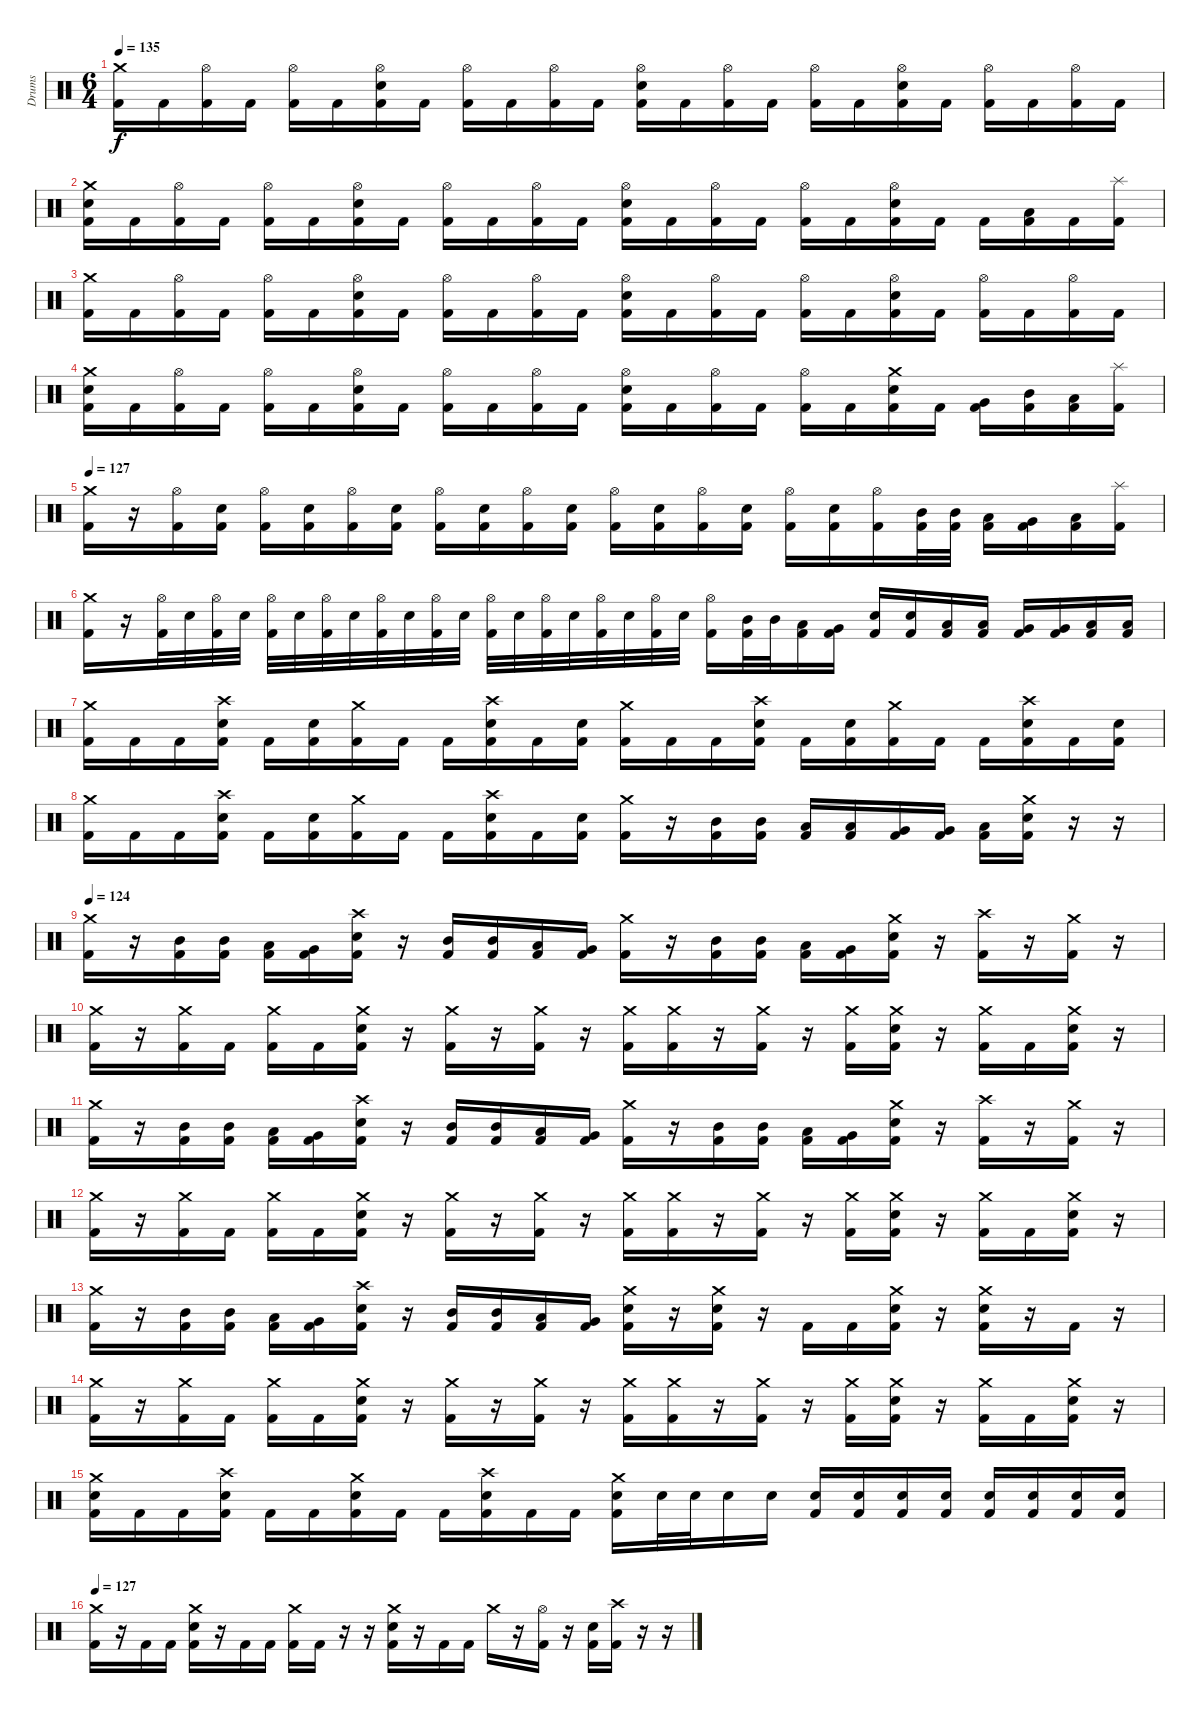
\track ("Drums" "Drums") {instrument percussion}
\staff {score}
\articulation defaults
\ts (6 4)
\section ("" "")
\tempo 135
\clef neutral
\ks c
("Crash medium (hit)" "Kick (hit) 2").16{dy f} "Kick (hit) 2".16 ("Hi-Hat (open)" "Kick (hit) 2").16 "Kick (hit) 2".16 ("Hi-Hat (open)" "Kick (hit) 2").16 "Kick (hit) 2".16 ("Hi-Hat (open)" "Electric Snare (hit)" "Kick (hit) 2").16 "Kick (hit) 2".16 ("Hi-Hat (open)" "Kick (hit) 2").16 "Kick (hit) 2".16 ("Hi-Hat (open)" "Kick (hit) 2").16 "Kick (hit) 2".16 ("Hi-Hat (open)" "Electric Snare (hit)" "Kick (hit) 2").16 "Kick (hit) 2".16 ("Hi-Hat (open)" "Kick (hit) 2").16 "Kick (hit) 2".16 ("Hi-Hat (open)" "Kick (hit) 2").16 "Kick (hit) 2".16 ("Hi-Hat (open)" "Electric Snare (hit)" "Kick (hit) 2").16 "Kick (hit) 2".16 ("Hi-Hat (open)" "Kick (hit) 2").16 "Kick (hit) 2".16 ("Hi-Hat (open)" "Kick (hit) 2").16 "Kick (hit) 2".16 |
("Crash medium (hit)" "Electric Snare (hit)" "Kick (hit) 2").16 "Kick (hit) 2".16 ("Hi-Hat (open)" "Kick (hit) 2").16 "Kick (hit) 2".16 ("Hi-Hat (open)" "Kick (hit) 2").16 "Kick (hit) 2".16 ("Hi-Hat (open)" "Electric Snare (hit)" "Kick (hit) 2").16 "Kick (hit) 2".16 ("Hi-Hat (open)" "Kick (hit) 2").16 "Kick (hit) 2".16 ("Hi-Hat (open)" "Kick (hit) 2").16 "Kick (hit) 2".16 ("Hi-Hat (open)" "Electric Snare (hit)" "Kick (hit) 2").16 "Kick (hit) 2".16 ("Hi-Hat (open)" "Kick (hit) 2").16 "Kick (hit) 2".16 ("Hi-Hat (open)" "Kick (hit) 2").16 "Kick (hit) 2".16 ("Hi-Hat (open)" "Electric Snare (hit)" "Kick (hit) 2").16 "Kick (hit) 2".16 "Kick (hit) 2".16 ("Low Tom (hit)" "Kick (hit) 2").16 "Kick (hit) 2".16 ("Splash (hit)" "Kick (hit) 2").16 |
("Crash medium (hit)" "Kick (hit) 2").16 "Kick (hit) 2".16 ("Hi-Hat (open)" "Kick (hit) 2").16 "Kick (hit) 2".16 ("Hi-Hat (open)" "Kick (hit) 2").16 "Kick (hit) 2".16 ("Hi-Hat (open)" "Electric Snare (hit)" "Kick (hit) 2").16 "Kick (hit) 2".16 ("Hi-Hat (open)" "Kick (hit) 2").16 "Kick (hit) 2".16 ("Hi-Hat (open)" "Kick (hit) 2").16 "Kick (hit) 2".16 ("Hi-Hat (open)" "Electric Snare (hit)" "Kick (hit) 2").16 "Kick (hit) 2".16 ("Hi-Hat (open)" "Kick (hit) 2").16 "Kick (hit) 2".16 ("Hi-Hat (open)" "Kick (hit) 2").16 "Kick (hit) 2".16 ("Hi-Hat (open)" "Electric Snare (hit)" "Kick (hit) 2").16 "Kick (hit) 2".16 ("Hi-Hat (open)" "Kick (hit) 2").16 "Kick (hit) 2".16 ("Hi-Hat (open)" "Kick (hit) 2").16 "Kick (hit) 2".16 |
("Crash medium (hit)" "Electric Snare (hit)" "Kick (hit) 2").16 "Kick (hit) 2".16 ("Hi-Hat (open)" "Kick (hit) 2").16 "Kick (hit) 2".16 ("Hi-Hat (open)" "Kick (hit) 2").16 "Kick (hit) 2".16 ("Hi-Hat (open)" "Electric Snare (hit)" "Kick (hit) 2").16 "Kick (hit) 2".16 ("Hi-Hat (open)" "Kick (hit) 2").16 "Kick (hit) 2".16 ("Hi-Hat (open)" "Kick (hit) 2").16 "Kick (hit) 2".16 ("Hi-Hat (open)" "Electric Snare (hit)" "Kick (hit) 2").16 "Kick (hit) 2".16 ("Hi-Hat (open)" "Kick (hit) 2").16 "Kick (hit) 2".16 ("Hi-Hat (open)" "Kick (hit) 2").16 "Kick (hit) 2".16 ("Crash medium (hit)" "Electric Snare (hit)" "Kick (hit) 2").16 "Kick (hit) 2".16 ("Very Low Tom (hit)" "Kick (hit) 2").16 ("Mid Tom (hit)" "Kick (hit) 2").16 ("Low Tom (hit)" "Kick (hit) 2").16 ("Splash (hit)" "Kick (hit) 2").16 |
\section ("" "")
\tempo 127
("Crash medium (hit)" "Kick (hit) 2").16 r.16 ("Hi-Hat (open)" "Kick (hit) 2").16 ("Electric Snare (hit)" "Kick (hit) 2").16 ("Hi-Hat (open)" "Kick (hit) 2").16 ("Electric Snare (hit)" "Kick (hit) 2").16 ("Hi-Hat (open)" "Kick (hit) 2").16 ("Electric Snare (hit)" "Kick (hit) 2").16 ("Hi-Hat (open)" "Kick (hit) 2").16 ("Electric Snare (hit)" "Kick (hit) 2").16 ("Hi-Hat (open)" "Kick (hit) 2").16 ("Electric Snare (hit)" "Kick (hit) 2").16 ("Hi-Hat (open)" "Kick (hit) 2").16 ("Electric Snare (hit)" "Kick (hit) 2").16 ("Hi-Hat (open)" "Kick (hit) 2").16 ("Electric Snare (hit)" "Kick (hit) 2").16 ("Hi-Hat (open)" "Kick (hit) 2").16 ("Electric Snare (hit)" "Kick (hit) 2").16 ("Hi-Hat (open)" "Kick (hit) 2").16 ("Mid Tom (hit)" "Kick (hit) 2").32 ("Mid Tom (hit)" "Kick (hit) 2").32 ("Low Tom (hit)" "Kick (hit) 2").16 ("Very Low Tom (hit)" "Kick (hit) 2").16 ("Low Floor Tom (hit)" "Kick (hit) 2").16 ("Splash (hit)" "Kick (hit) 2").16 |
("Crash medium (hit)" "Kick (hit) 2").16 r.16 ("Hi-Hat (open)" "Kick (hit) 2").32 "Electric Snare (hit)".32 ("Hi-Hat (open)" "Kick (hit) 2").32 "Electric Snare (hit)".32 ("Hi-Hat (open)" "Kick (hit) 2").32 "Electric Snare (hit)".32 ("Hi-Hat (open)" "Kick (hit) 2").32 "Electric Snare (hit)".32 ("Hi-Hat (open)" "Kick (hit) 2").32 "Electric Snare (hit)".32 ("Hi-Hat (open)" "Kick (hit) 2").32 "Electric Snare (hit)".32 ("Hi-Hat (open)" "Kick (hit) 2").32 "Electric Snare (hit)".32 ("Hi-Hat (open)" "Kick (hit) 2").32 "Electric Snare (hit)".32 ("Hi-Hat (open)" "Kick (hit) 2").32 "Electric Snare (hit)".32 ("Hi-Hat (open)" "Kick (hit) 2").32 "Electric Snare (hit)".32 ("Hi-Hat (open)" "Kick (hit) 2").16 ("Mid Tom (hit)" "Kick (hit) 2").32 "Mid Tom (hit)".32 ("Low Tom (hit)" "Kick (hit) 2").16 ("Very Low Tom (hit)" "Kick (hit) 2").16 ("Electric Snare (hit)" "Kick (hit) 2").16 ("Electric Snare (hit)" "Kick (hit) 2").16 ("Low Tom (hit)" "Kick (hit) 2").16 ("Low Tom (hit)" "Kick (hit) 2").16 ("Very Low Tom (hit)" "Kick (hit) 2").16 ("Very Low Tom (hit)" "Kick (hit) 2").16 ("Low Floor Tom (hit)" "Kick (hit) 2").16 ("Low Floor Tom (hit)" "Kick (hit) 2").16 |
\section ("" "")
("Crash medium (hit)" "Kick (hit) 2").16 "Kick (hit) 2".16 "Kick (hit) 2".16 ("Crash high (hit)" "Electric Snare (hit)" "Kick (hit) 2").16 "Kick (hit) 2".16 ("Electric Snare (hit)" "Kick (hit) 2").16 ("Crash medium (hit)" "Kick (hit) 2").16 "Kick (hit) 2".16 "Kick (hit) 2".16 ("Crash high (hit)" "Electric Snare (hit)" "Kick (hit) 2").16 "Kick (hit) 2".16 ("Electric Snare (hit)" "Kick (hit) 2").16 ("Crash medium (hit)" "Kick (hit) 2").16 "Kick (hit) 2".16 "Kick (hit) 2".16 ("Crash high (hit)" "Electric Snare (hit)" "Kick (hit) 2").16 "Kick (hit) 2".16 ("Electric Snare (hit)" "Kick (hit) 2").16 ("Crash medium (hit)" "Kick (hit) 2").16 "Kick (hit) 2".16 "Kick (hit) 2".16 ("Crash high (hit)" "Electric Snare (hit)" "Kick (hit) 2").16 "Kick (hit) 2".16 ("Electric Snare (hit)" "Kick (hit) 2").16 |
("Crash medium (hit)" "Kick (hit) 2").16 "Kick (hit) 2".16 "Kick (hit) 2".16 ("Crash high (hit)" "Electric Snare (hit)" "Kick (hit) 2").16 "Kick (hit) 2".16 ("Electric Snare (hit)" "Kick (hit) 2").16 ("Crash medium (hit)" "Kick (hit) 2").16 "Kick (hit) 2".16 "Kick (hit) 2".16 ("Crash high (hit)" "Electric Snare (hit)" "Kick (hit) 2").16 "Kick (hit) 2".16 ("Electric Snare (hit)" "Kick (hit) 2").16 ("Crash medium (hit)" "Kick (hit) 2").16 r.16 ("Mid Tom (hit)" "Kick (hit) 2").16 ("Mid Tom (hit)" "Kick (hit) 2").16 ("Low Tom (hit)" "Kick (hit) 2").16 ("Low Tom (hit)" "Kick (hit) 2").16 ("Very Low Tom (hit)" "Kick (hit) 2").16 ("Very Low Tom (hit)" "Kick (hit) 2").16 ("Low Floor Tom (hit)" "Kick (hit) 2").16 ("Crash medium (hit)" "Electric Snare (hit)" "Kick (hit) 2").16 r.16{volume 0} r.16 |
\section ("" "")
\tempo 124
("Crash medium (hit)" "Kick (hit) 2").16{volume 16} r.16 ("Mid Tom (hit)" "Kick (hit) 2").16 ("Mid Tom (hit)" "Kick (hit) 2").16 ("Low Tom (hit)" "Kick (hit) 2").16 ("Very Low Tom (hit)" "Kick (hit) 2").16 ("Crash high (hit)" "Electric Snare (hit)" "Kick (hit) 2").16 r.16 ("Mid Tom (hit)" "Kick (hit) 2").16 ("Mid Tom (hit)" "Kick (hit) 2").16 ("Low Tom (hit)" "Kick (hit) 2").16 ("Very Low Tom (hit)" "Kick (hit) 2").16 ("Crash medium (hit)" "Kick (hit) 2").16 r.16 ("Mid Tom (hit)" "Kick (hit) 2").16 ("Mid Tom (hit)" "Kick (hit) 2").16 ("Low Tom (hit)" "Kick (hit) 2").16 ("Very Low Tom (hit)" "Kick (hit) 2").16 ("Crash medium (hit)" "Electric Snare (hit)" "Kick (hit) 2").16 r.16 ("Crash high (hit)" "Kick (hit) 2").16 r.16 ("Crash medium (hit)" "Kick (hit) 2").16 r.16 |
("Crash medium (hit)" "Kick (hit) 2").16 r.16 ("Crash medium (hit)" "Kick (hit) 2").16 "Kick (hit) 2".16 ("Crash medium (hit)" "Kick (hit) 2").16 "Kick (hit) 2".16 ("Crash medium (hit)" "Electric Snare (hit)" "Kick (hit) 2").16 r.16 ("Crash medium (hit)" "Kick (hit) 2").16 r.16 ("Crash medium (hit)" "Kick (hit) 2").16 r.16 ("Crash medium (hit)" "Kick (hit) 2").16 ("Crash medium (hit)" "Kick (hit) 2").16 r.16 ("Crash medium (hit)" "Kick (hit) 2").16 r.16 ("Crash medium (hit)" "Kick (hit) 2").16 ("Crash medium (hit)" "Electric Snare (hit)" "Kick (hit) 2").16 r.16 ("Crash medium (hit)" "Kick (hit) 2").16 "Kick (hit) 2".16 ("Crash medium (hit)" "Electric Snare (hit)" "Kick (hit) 2").16 r.16 |
("Crash medium (hit)" "Kick (hit) 2").16 r.16 ("Mid Tom (hit)" "Kick (hit) 2").16 ("Mid Tom (hit)" "Kick (hit) 2").16 ("Low Tom (hit)" "Kick (hit) 2").16 ("Very Low Tom (hit)" "Kick (hit) 2").16 ("Crash high (hit)" "Electric Snare (hit)" "Kick (hit) 2").16 r.16 ("Mid Tom (hit)" "Kick (hit) 2").16 ("Mid Tom (hit)" "Kick (hit) 2").16 ("Low Tom (hit)" "Kick (hit) 2").16 ("Very Low Tom (hit)" "Kick (hit) 2").16 ("Crash medium (hit)" "Kick (hit) 2").16 r.16 ("Mid Tom (hit)" "Kick (hit) 2").16 ("Mid Tom (hit)" "Kick (hit) 2").16 ("Low Tom (hit)" "Kick (hit) 2").16 ("Very Low Tom (hit)" "Kick (hit) 2").16 ("Crash medium (hit)" "Electric Snare (hit)" "Kick (hit) 2").16 r.16 ("Crash high (hit)" "Kick (hit) 2").16 r.16 ("Crash medium (hit)" "Kick (hit) 2").16 r.16 |
("Crash medium (hit)" "Kick (hit) 2").16 r.16 ("Crash medium (hit)" "Kick (hit) 2").16 "Kick (hit) 2".16 ("Crash medium (hit)" "Kick (hit) 2").16 "Kick (hit) 2".16 ("Crash medium (hit)" "Electric Snare (hit)" "Kick (hit) 2").16 r.16 ("Crash medium (hit)" "Kick (hit) 2").16 r.16 ("Crash medium (hit)" "Kick (hit) 2").16 r.16 ("Crash medium (hit)" "Kick (hit) 2").16 ("Crash medium (hit)" "Kick (hit) 2").16 r.16 ("Crash medium (hit)" "Kick (hit) 2").16 r.16 ("Crash medium (hit)" "Kick (hit) 2").16 ("Crash medium (hit)" "Electric Snare (hit)" "Kick (hit) 2").16 r.16 ("Crash medium (hit)" "Kick (hit) 2").16 "Kick (hit) 2".16 ("Crash medium (hit)" "Electric Snare (hit)" "Kick (hit) 2").16 r.16 |
("Crash medium (hit)" "Kick (hit) 2").16 r.16 ("Mid Tom (hit)" "Kick (hit) 2").16 ("Mid Tom (hit)" "Kick (hit) 2").16 ("Low Tom (hit)" "Kick (hit) 2").16 ("Very Low Tom (hit)" "Kick (hit) 2").16 ("Crash high (hit)" "Electric Snare (hit)" "Kick (hit) 2").16 r.16 ("Mid Tom (hit)" "Kick (hit) 2").16 ("Mid Tom (hit)" "Kick (hit) 2").16 ("Low Tom (hit)" "Kick (hit) 2").16 ("Very Low Tom (hit)" "Kick (hit) 2").16 ("Crash medium (hit)" "Electric Snare (hit)" "Kick (hit) 2").16 r.16 ("Crash medium (hit)" "Electric Snare (hit)" "Kick (hit) 2").16 r.16 "Kick (hit) 2".16 "Kick (hit) 2".16 ("Crash medium (hit)" "Electric Snare (hit)" "Kick (hit) 2").16 r.16 ("Crash medium (hit)" "Electric Snare (hit)" "Kick (hit) 2").16 r.16 "Kick (hit) 2".16 r.16 |
("Crash medium (hit)" "Kick (hit) 2").16 r.16 ("Crash medium (hit)" "Kick (hit) 2").16 "Kick (hit) 2".16 ("Crash medium (hit)" "Kick (hit) 2").16 "Kick (hit) 2".16 ("Crash medium (hit)" "Electric Snare (hit)" "Kick (hit) 2").16 r.16 ("Crash medium (hit)" "Kick (hit) 2").16 r.16 ("Crash medium (hit)" "Kick (hit) 2").16 r.16 ("Crash medium (hit)" "Kick (hit) 2").16 ("Crash medium (hit)" "Kick (hit) 2").16 r.16 ("Crash medium (hit)" "Kick (hit) 2").16 r.16 ("Crash medium (hit)" "Kick (hit) 2").16 ("Crash medium (hit)" "Electric Snare (hit)" "Kick (hit) 2").16 r.16 ("Crash medium (hit)" "Kick (hit) 2").16 "Kick (hit) 2".16 ("Crash medium (hit)" "Electric Snare (hit)" "Kick (hit) 2").16 r.16 |
("Crash medium (hit)" "Electric Snare (hit)" "Kick (hit) 2").16 "Kick (hit) 2".16 "Kick (hit) 2".16 ("Crash high (hit)" "Electric Snare (hit)" "Kick (hit) 2").16 "Kick (hit) 2".16 "Kick (hit) 2".16 ("Crash medium (hit)" "Electric Snare (hit)" "Kick (hit) 2").16 "Kick (hit) 2".16 "Kick (hit) 2".16 ("Crash high (hit)" "Electric Snare (hit)" "Kick (hit) 2").16 "Kick (hit) 2".16 "Kick (hit) 2".16 ("Crash medium (hit)" "Electric Snare (hit)" "Kick (hit) 2").16 "Electric Snare (hit)".32 "Electric Snare (hit)".32 "Electric Snare (hit)".16 "Electric Snare (hit)".16 ("Electric Snare (hit)" "Kick (hit) 2").16 ("Electric Snare (hit)" "Kick (hit) 2").16 ("Electric Snare (hit)" "Kick (hit) 2").16 ("Electric Snare (hit)" "Kick (hit) 2").16 ("Electric Snare (hit)" "Kick (hit) 2").16 ("Electric Snare (hit)" "Kick (hit) 2").16 ("Electric Snare (hit)" "Kick (hit) 2").16 ("Electric Snare (hit)" "Kick (hit) 2").16 |
\section ("" "")
\tempo 127
("Crash medium (hit)" "Kick (hit) 2").16 r.16 "Kick (hit) 2".16 "Kick (hit) 2".16 ("Crash medium (hit)" "Electric Snare (hit)" "Kick (hit) 2").16 r.16 "Kick (hit) 2".16 "Kick (hit) 2".16 ("Crash medium (hit)" "Kick (hit) 2").16 "Kick (hit) 2".16 r.16 r.16 ("Crash medium (hit)" "Electric Snare (hit)" "Kick (hit) 2").16 r.16 "Kick (hit) 2".16 "Kick (hit) 2".16 "Crash medium (hit)".16 r.16 ("Hi-Hat (open)" "Kick (hit) 2").16 r.16 ("Electric Snare (hit)" "Kick (hit) 2").16 ("Crash high (hit)" "Kick (hit) 2").16 r.16 r.16
